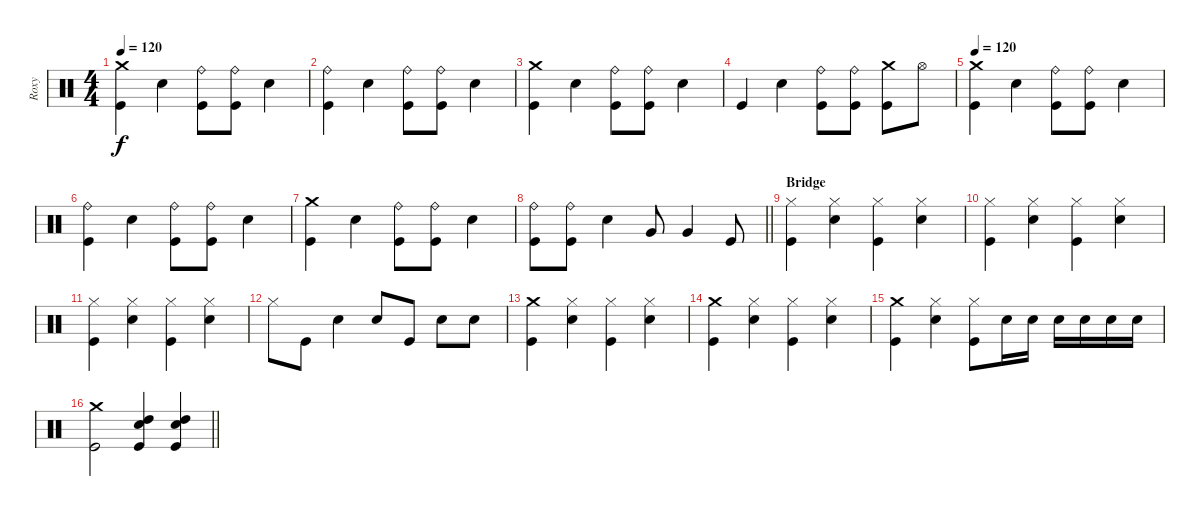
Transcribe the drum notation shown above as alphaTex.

\track ("Roxy" "Roxy") {instrument percussion}
\staff {score}
\articulation defaults
\ts (4 4)
\tempo 120
\clef neutral
\ks c
("Crash medium (hit)" "Kick (hit)").4{dy f} "Electric Snare (hit)".4 ("Ride (bell)" "Kick (hit)").8 ("Ride (bell)" "Kick (hit)").8 "Electric Snare (hit)".4 |
("Ride (bell)" "Kick (hit)").4 "Electric Snare (hit)".4 ("Ride (bell)" "Kick (hit)").8 ("Ride (bell)" "Kick (hit)").8 "Electric Snare (hit)".4 |
("Crash medium (hit)" "Kick (hit)").4 "Electric Snare (hit)".4 ("Ride (bell)" "Kick (hit)").8 ("Ride (bell)" "Kick (hit)").8 "Electric Snare (hit)".4 |
"Kick (hit)".4 "Electric Snare (hit)".4 ("Ride (bell)" "Kick (hit)").8 ("Ride (bell)" "Kick (hit)").8 ("Crash medium (hit)" "Kick (hit)").8 "Hi-Hat (open)".8 |
\tempo 120
("Crash medium (hit)" "Kick (hit)").4 "Electric Snare (hit)".4 ("Ride (bell)" "Kick (hit)").8 ("Ride (bell)" "Kick (hit)").8 "Electric Snare (hit)".4 |
("Ride (bell)" "Kick (hit)").4 "Electric Snare (hit)".4 ("Ride (bell)" "Kick (hit)").8 ("Ride (bell)" "Kick (hit)").8 "Electric Snare (hit)".4 |
("Crash medium (hit)" "Kick (hit)").4 "Electric Snare (hit)".4 ("Ride (bell)" "Kick (hit)").8 ("Ride (bell)" "Kick (hit)").8 "Electric Snare (hit)".4 |
\barLineRight lightlight
("Ride (bell)" "Kick (hit)").8 ("Ride (bell)" "Kick (hit)").8 "Electric Snare (hit)".4 "Very Low Tom (hit)".8 "Very Low Tom (hit)".4 "Kick (hit)".8 |
\section ("" "Bridge")
("Hi-Hat (closed)" "Kick (hit)").4 ("Hi-Hat (closed)" "Electric Snare (hit)").4 ("Hi-Hat (closed)" "Kick (hit)").4 ("Hi-Hat (closed)" "Electric Snare (hit)").4 |
("Hi-Hat (closed)" "Kick (hit)").4 ("Hi-Hat (closed)" "Electric Snare (hit)").4 ("Hi-Hat (closed)" "Kick (hit)").4 ("Hi-Hat (closed)" "Electric Snare (hit)").4 |
("Hi-Hat (closed)" "Kick (hit)").4 ("Hi-Hat (closed)" "Electric Snare (hit)").4 ("Hi-Hat (closed)" "Kick (hit)").4 ("Hi-Hat (closed)" "Electric Snare (hit)").4 |
"Hi-Hat (closed)".8 "Kick (hit)".8 "Electric Snare (hit)".4 "Electric Snare (hit)".8 "Kick (hit)".8 "Electric Snare (hit)".8 "Electric Snare (hit)".8 |
("Crash medium (hit)" "Kick (hit)").4 ("Hi-Hat (closed)" "Electric Snare (hit)").4 ("Hi-Hat (closed)" "Kick (hit)").4 ("Hi-Hat (closed)" "Electric Snare (hit)").4 |
("Crash medium (hit)" "Kick (hit)").4 ("Hi-Hat (closed)" "Electric Snare (hit)").4 ("Hi-Hat (closed)" "Kick (hit)").4 ("Hi-Hat (closed)" "Electric Snare (hit)").4 |
("Crash medium (hit)" "Kick (hit)").4 ("Hi-Hat (closed)" "Electric Snare (hit)").4 ("Hi-Hat (closed)" "Kick (hit)").8 "Electric Snare (hit)".16 "Electric Snare (hit)".16 "Electric Snare (hit)".16 "Electric Snare (hit)".16 "Electric Snare (hit)".16 "Electric Snare (hit)".16 |
\barLineRight lightlight
("Crash medium (hit)" "Kick (hit)").2 ("High Tom (hit)" "Electric Snare (hit)" "Kick (hit)").4 ("High Tom (hit)" "Electric Snare (hit)" "Kick (hit)").4
